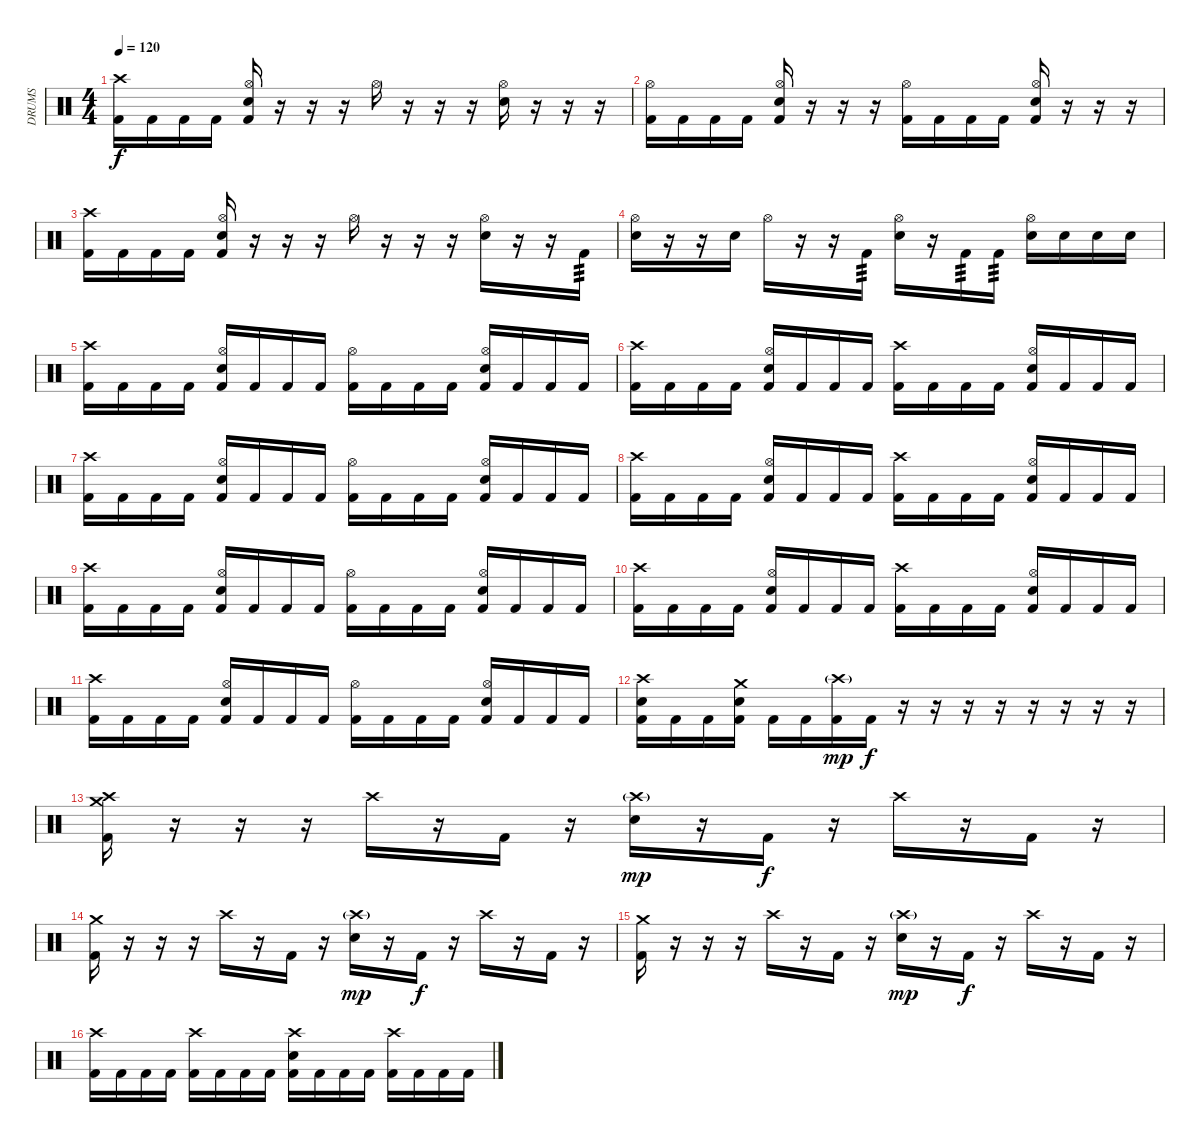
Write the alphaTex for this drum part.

\track ("DRUMS" "DRUMS") {instrument percussion}
\staff {score}
\articulation defaults
\ts (4 4)
\tempo 120
\clef neutral
\ks c
("Crash high (hit)" "Kick (hit) 2").16{dy f} "Kick (hit) 2".16 "Kick (hit) 2".16 "Kick (hit) 2".16 ("Hi-Hat (open)" "Electric Snare (hit)" "Kick (hit) 2").16 r.16 r.16 r.16 "Hi-Hat (open)".16 r.16 r.16 r.16 ("Hi-Hat (open)" "Electric Snare (hit)").16 r.16 r.16 r.16 |
("Hi-Hat (open)" "Kick (hit) 2").16 "Kick (hit) 2".16 "Kick (hit) 2".16 "Kick (hit) 2".16 ("Hi-Hat (open)" "Electric Snare (hit)" "Kick (hit) 2").16 r.16 r.16 r.16 ("Hi-Hat (open)" "Kick (hit) 2").16 "Kick (hit) 2".16 "Kick (hit) 2".16 "Kick (hit) 2".16 ("Hi-Hat (open)" "Electric Snare (hit)" "Kick (hit) 2").16 r.16 r.16 r.16 |
("Crash high (hit)" "Kick (hit) 2").16 "Kick (hit) 2".16 "Kick (hit) 2".16 "Kick (hit) 2".16 ("Hi-Hat (open)" "Electric Snare (hit)" "Kick (hit) 2").16 r.16 r.16 r.16 "Hi-Hat (open)".16 r.16 r.16 r.16 ("Hi-Hat (open)" "Electric Snare (hit)").16 r.16 r.16 "Kick (hit) 2".16{tp 3} |
("Hi-Hat (open)" "Electric Snare (hit)").16 r.16 r.16 "Electric Snare (hit)".16 "Hi-Hat (open)".16 r.16 r.16 "Kick (hit) 2".16{tp 3} ("Hi-Hat (open)" "Electric Snare (hit)").16 r.16 "Kick (hit) 2".16{tp 3} "Kick (hit) 2".16{tp 3} ("Hi-Hat (open)" "Electric Snare (hit)").16 "Electric Snare (hit)".16 "Electric Snare (hit)".16 "Electric Snare (hit)".16 |
("Crash high (hit)" "Kick (hit) 2").16 "Kick (hit) 2".16 "Kick (hit) 2".16 "Kick (hit) 2".16 ("Hi-Hat (open)" "Electric Snare (hit)" "Kick (hit) 2").16 "Kick (hit) 2".16 "Kick (hit) 2".16 "Kick (hit) 2".16 ("Hi-Hat (open)" "Kick (hit) 2").16 "Kick (hit) 2".16 "Kick (hit) 2".16 "Kick (hit) 2".16 ("Hi-Hat (open)" "Electric Snare (hit)" "Kick (hit) 2").16 "Kick (hit) 2".16 "Kick (hit) 2".16 "Kick (hit) 2".16 |
("Crash high (hit)" "Kick (hit) 2").16 "Kick (hit) 2".16 "Kick (hit) 2".16 "Kick (hit) 2".16 ("Hi-Hat (open)" "Electric Snare (hit)" "Kick (hit) 2").16 "Kick (hit) 2".16 "Kick (hit) 2".16 "Kick (hit) 2".16 ("Crash high (hit)" "Kick (hit) 2").16 "Kick (hit) 2".16 "Kick (hit) 2".16 "Kick (hit) 2".16 ("Hi-Hat (open)" "Electric Snare (hit)" "Kick (hit) 2").16 "Kick (hit) 2".16 "Kick (hit) 2".16 "Kick (hit) 2".16 |
("Crash high (hit)" "Kick (hit) 2").16 "Kick (hit) 2".16 "Kick (hit) 2".16 "Kick (hit) 2".16 ("Hi-Hat (open)" "Electric Snare (hit)" "Kick (hit) 2").16 "Kick (hit) 2".16 "Kick (hit) 2".16 "Kick (hit) 2".16 ("Hi-Hat (open)" "Kick (hit) 2").16 "Kick (hit) 2".16 "Kick (hit) 2".16 "Kick (hit) 2".16 ("Hi-Hat (open)" "Electric Snare (hit)" "Kick (hit) 2").16 "Kick (hit) 2".16 "Kick (hit) 2".16 "Kick (hit) 2".16 |
("Crash high (hit)" "Kick (hit) 2").16 "Kick (hit) 2".16 "Kick (hit) 2".16 "Kick (hit) 2".16 ("Hi-Hat (open)" "Electric Snare (hit)" "Kick (hit) 2").16 "Kick (hit) 2".16 "Kick (hit) 2".16 "Kick (hit) 2".16 ("Crash high (hit)" "Kick (hit) 2").16 "Kick (hit) 2".16 "Kick (hit) 2".16 "Kick (hit) 2".16 ("Hi-Hat (open)" "Electric Snare (hit)" "Kick (hit) 2").16 "Kick (hit) 2".16 "Kick (hit) 2".16 "Kick (hit) 2".16 |
("Crash high (hit)" "Kick (hit) 2").16 "Kick (hit) 2".16 "Kick (hit) 2".16 "Kick (hit) 2".16 ("Hi-Hat (open)" "Electric Snare (hit)" "Kick (hit) 2").16 "Kick (hit) 2".16 "Kick (hit) 2".16 "Kick (hit) 2".16 ("Hi-Hat (open)" "Kick (hit) 2").16 "Kick (hit) 2".16 "Kick (hit) 2".16 "Kick (hit) 2".16 ("Hi-Hat (open)" "Electric Snare (hit)" "Kick (hit) 2").16 "Kick (hit) 2".16 "Kick (hit) 2".16 "Kick (hit) 2".16 |
("Crash high (hit)" "Kick (hit) 2").16 "Kick (hit) 2".16 "Kick (hit) 2".16 "Kick (hit) 2".16 ("Hi-Hat (open)" "Electric Snare (hit)" "Kick (hit) 2").16 "Kick (hit) 2".16 "Kick (hit) 2".16 "Kick (hit) 2".16 ("Crash high (hit)" "Kick (hit) 2").16 "Kick (hit) 2".16 "Kick (hit) 2".16 "Kick (hit) 2".16 ("Hi-Hat (open)" "Electric Snare (hit)" "Kick (hit) 2").16 "Kick (hit) 2".16 "Kick (hit) 2".16 "Kick (hit) 2".16 |
("Crash high (hit)" "Kick (hit) 2").16 "Kick (hit) 2".16 "Kick (hit) 2".16 "Kick (hit) 2".16 ("Hi-Hat (open)" "Electric Snare (hit)" "Kick (hit) 2").16 "Kick (hit) 2".16 "Kick (hit) 2".16 "Kick (hit) 2".16 ("Hi-Hat (open)" "Kick (hit) 2").16 "Kick (hit) 2".16 "Kick (hit) 2".16 "Kick (hit) 2".16 ("Hi-Hat (open)" "Electric Snare (hit)" "Kick (hit) 2").16 "Kick (hit) 2".16 "Kick (hit) 2".16 "Kick (hit) 2".16 |
("Crash high (hit)" "Electric Snare (hit)" "Kick (hit) 2").16 "Kick (hit) 2".16 "Kick (hit) 2".16 ("Crash medium (hit)" "Electric Snare (hit)" "Kick (hit) 2").16 "Kick (hit) 2".16 "Kick (hit) 2".16 ("Crash high (hit)"{g} "Kick (hit) 2").16{dy mp} "Kick (hit) 2".16{dy f} r.16 r.16 r.16 r.16 r.16 r.16 r.16 r.16 |
("Crash high (hit)" "Crash medium (hit)" "Kick (hit) 2").16 r.16 r.16 r.16 "Crash high (hit)".16 r.16 "Kick (hit) 2".16 r.16 ("Crash high (hit)"{g} "Electric Snare (hit)").16{dy mp} r.16 "Kick (hit) 2".16{dy f} r.16 "Crash high (hit)".16 r.16 "Kick (hit) 2".16 r.16 |
("Crash medium (hit)" "Kick (hit) 2").16 r.16 r.16 r.16 "Crash high (hit)".16 r.16 "Kick (hit) 2".16 r.16 ("Crash high (hit)"{g} "Electric Snare (hit)").16{dy mp} r.16 "Kick (hit) 2".16{dy f} r.16 "Crash high (hit)".16 r.16 "Kick (hit) 2".16 r.16 |
("Crash medium (hit)" "Kick (hit) 2").16 r.16 r.16 r.16 "Crash high (hit)".16 r.16 "Kick (hit) 2".16 r.16 ("Crash high (hit)"{g} "Electric Snare (hit)").16{dy mp} r.16 "Kick (hit) 2".16{dy f} r.16 "Crash high (hit)".16 r.16 "Kick (hit) 2".16 r.16 |
("Crash high (hit)" "Kick (hit) 2").16 "Kick (hit) 2".16 "Kick (hit) 2".16 "Kick (hit) 2".16 ("Crash high (hit)" "Kick (hit) 2").16 "Kick (hit) 2".16 "Kick (hit) 2".16 "Kick (hit) 2".16 ("Crash high (hit)" "Electric Snare (hit)" "Kick (hit) 2").16 "Kick (hit) 2".16 "Kick (hit) 2".16 "Kick (hit) 2".16 ("Crash high (hit)" "Kick (hit) 2").16 "Kick (hit) 2".16 "Kick (hit) 2".16 "Kick (hit) 2".16
